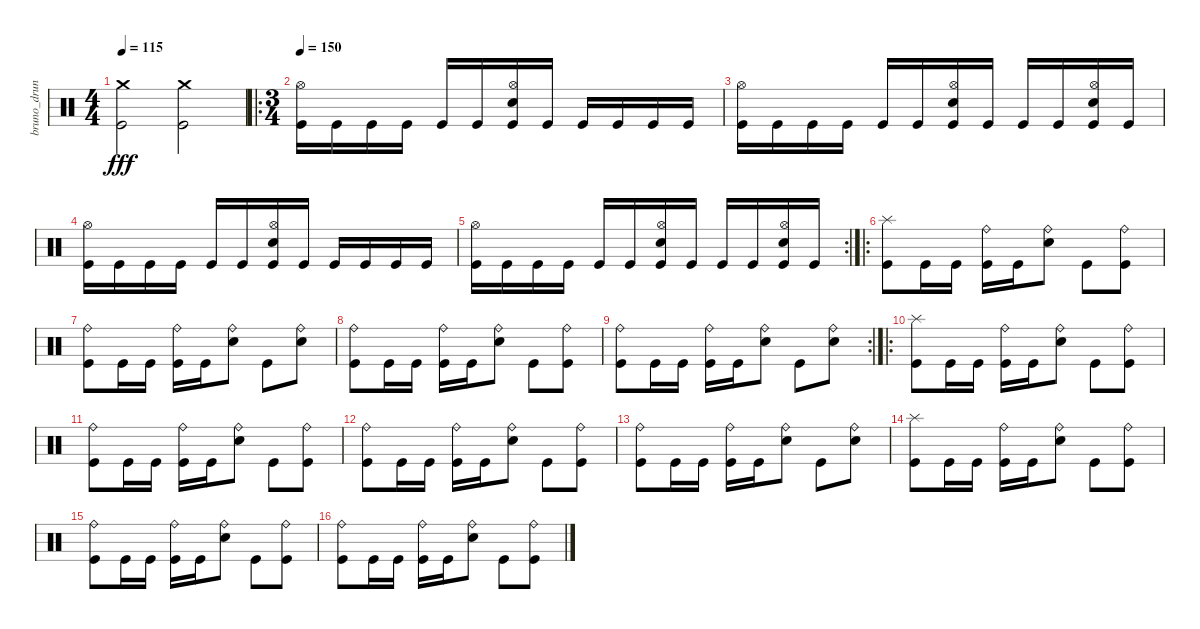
\track ("bruno_druns" "bruno_drun") {instrument percussion}
\staff {score}
\articulation defaults
\ts (4 4)
\tempo 115
\clef neutral
\ks c
("Kick (hit)" "Crash medium (hit)").2{dy fff} ("Kick (hit)" "Crash medium (hit)").2 |
\ro
\ts (3 4)
\tempo 150
("Kick (hit)" "Hi-Hat (open)").16 "Kick (hit)".16 "Kick (hit)".16 "Kick (hit)".16 "Kick (hit)".16 "Kick (hit)".16 ("Kick (hit)" "Electric Snare (hit)" "Hi-Hat (open)").16 "Kick (hit)".16 "Kick (hit)".16 "Kick (hit)".16 "Kick (hit)".16 "Kick (hit)".16 |
("Kick (hit)" "Hi-Hat (open)").16 "Kick (hit)".16 "Kick (hit)".16 "Kick (hit)".16 "Kick (hit)".16 "Kick (hit)".16 ("Kick (hit)" "Electric Snare (hit)" "Hi-Hat (open)").16 "Kick (hit)".16 "Kick (hit)".16 "Kick (hit)".16 ("Kick (hit)" "Electric Snare (hit)" "Hi-Hat (open)").16 "Kick (hit)".16 |
("Kick (hit)" "Hi-Hat (open)").16 "Kick (hit)".16 "Kick (hit)".16 "Kick (hit)".16 "Kick (hit)".16 "Kick (hit)".16 ("Kick (hit)" "Electric Snare (hit)" "Hi-Hat (open)").16 "Kick (hit)".16 "Kick (hit)".16 "Kick (hit)".16 "Kick (hit)".16 "Kick (hit)".16 |
\rc 2
("Kick (hit)" "Hi-Hat (open)").16 "Kick (hit)".16 "Kick (hit)".16 "Kick (hit)".16 "Kick (hit)".16 "Kick (hit)".16 ("Kick (hit)" "Electric Snare (hit)" "Hi-Hat (open)").16 "Kick (hit)".16 "Kick (hit)".16 "Kick (hit)".16 ("Kick (hit)" "Electric Snare (hit)" "Hi-Hat (open)").16 "Kick (hit)".16 |
\ro
("Kick (hit)" "Splash (hit)").8 "Kick (hit)".16 "Kick (hit)".16 ("Kick (hit)" "Ride (bell)").16 "Kick (hit)".16 ("Electric Snare (hit)" "Ride (bell)").8 "Kick (hit)".8 ("Kick (hit)" "Ride (bell)").8 |
("Kick (hit)" "Ride (bell)").8 "Kick (hit)".16 "Kick (hit)".16 ("Kick (hit)" "Ride (bell)").16 "Kick (hit)".16 ("Electric Snare (hit)" "Ride (bell)").8 "Kick (hit)".8 ("Electric Snare (hit)" "Ride (bell)").8 |
("Kick (hit)" "Ride (bell)").8 "Kick (hit)".16 "Kick (hit)".16 ("Kick (hit)" "Ride (bell)").16 "Kick (hit)".16 ("Electric Snare (hit)" "Ride (bell)").8 "Kick (hit)".8 ("Kick (hit)" "Ride (bell)").8 |
\rc 2
("Kick (hit)" "Ride (bell)").8 "Kick (hit)".16 "Kick (hit)".16 ("Kick (hit)" "Ride (bell)").16 "Kick (hit)".16 ("Electric Snare (hit)" "Ride (bell)").8 "Kick (hit)".8 ("Electric Snare (hit)" "Ride (bell)").8 |
\ro
("Kick (hit)" "Splash (hit)").8 "Kick (hit)".16 "Kick (hit)".16 ("Kick (hit)" "Ride (bell)").16 "Kick (hit)".16 ("Electric Snare (hit)" "Ride (bell)").8 "Kick (hit)".8 ("Kick (hit)" "Ride (bell)").8 |
("Kick (hit)" "Ride (bell)").8 "Kick (hit)".16 "Kick (hit)".16 ("Kick (hit)" "Ride (bell)").16 "Kick (hit)".16 ("Electric Snare (hit)" "Ride (bell)").8 "Kick (hit)".8 ("Kick (hit)" "Ride (bell)").8 |
("Kick (hit)" "Ride (bell)").8 "Kick (hit)".16 "Kick (hit)".16 ("Kick (hit)" "Ride (bell)").16 "Kick (hit)".16 ("Electric Snare (hit)" "Ride (bell)").8 "Kick (hit)".8 ("Kick (hit)" "Ride (bell)").8 |
("Kick (hit)" "Ride (bell)").8 "Kick (hit)".16 "Kick (hit)".16 ("Kick (hit)" "Ride (bell)").16 "Kick (hit)".16 ("Electric Snare (hit)" "Ride (bell)").8 "Kick (hit)".8 ("Electric Snare (hit)" "Ride (bell)").8 |
("Kick (hit)" "Splash (hit)").8 "Kick (hit)".16 "Kick (hit)".16 ("Kick (hit)" "Ride (bell)").16 "Kick (hit)".16 ("Electric Snare (hit)" "Ride (bell)").8 "Kick (hit)".8 ("Kick (hit)" "Ride (bell)").8 |
("Kick (hit)" "Ride (bell)").8 "Kick (hit)".16 "Kick (hit)".16 ("Kick (hit)" "Ride (bell)").16 "Kick (hit)".16 ("Electric Snare (hit)" "Ride (bell)").8 "Kick (hit)".8 ("Kick (hit)" "Ride (bell)").8 |
("Kick (hit)" "Ride (bell)").8 "Kick (hit)".16 "Kick (hit)".16 ("Kick (hit)" "Ride (bell)").16 "Kick (hit)".16 ("Electric Snare (hit)" "Ride (bell)").8 "Kick (hit)".8 ("Kick (hit)" "Ride (bell)").8
